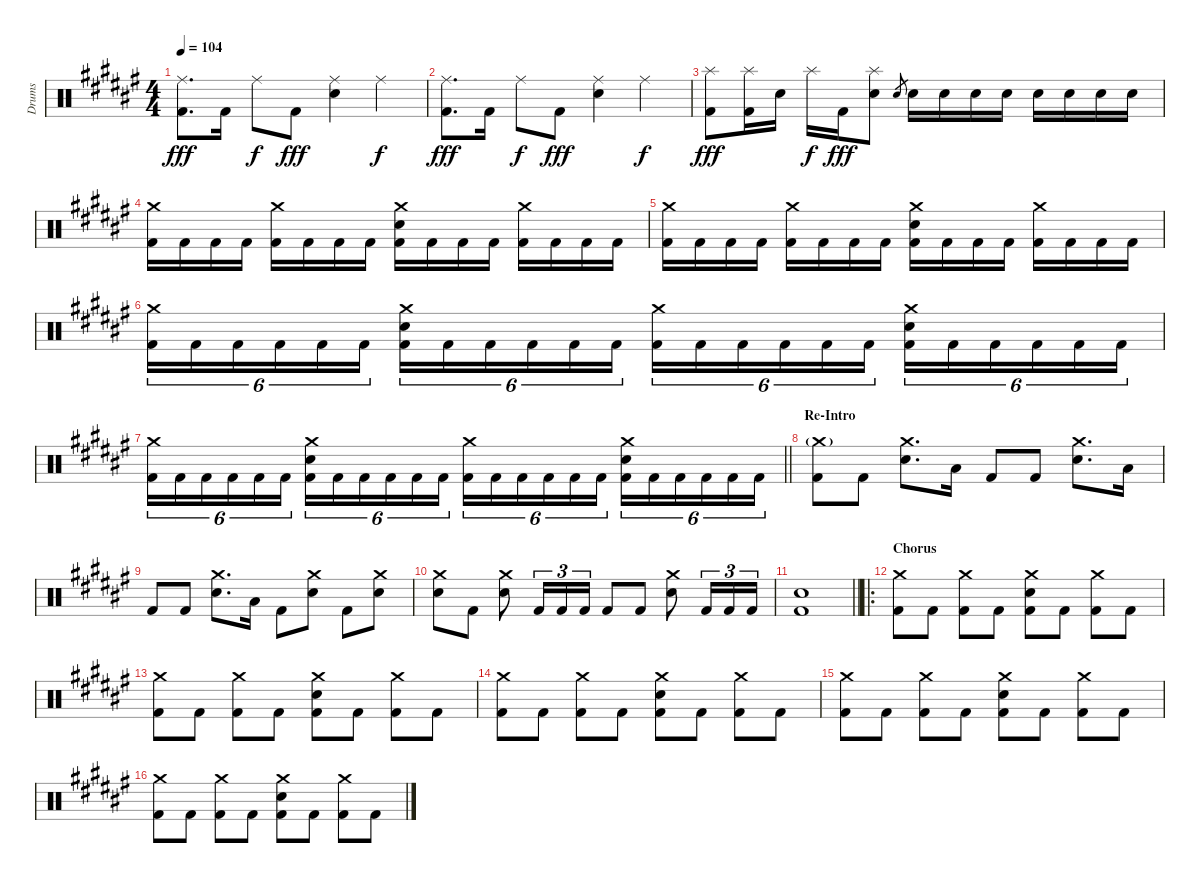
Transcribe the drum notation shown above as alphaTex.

\track ("Drums" "Drums") {instrument percussion}
\staff {score}
\articulation defaults
\ts (4 4)
\tempo 104
\clef neutral
\ks f#
("Ride (middle)" "Kick (hit) 2").8{d dy fff} "Kick (hit) 2".16 "Ride (middle)".8{dy f} "Kick (hit) 2".8{dy fff} ("Ride (middle)" "Snare (hit) 2").4 "Ride (middle)".4{dy f} |
("Ride (middle)" "Kick (hit) 2").8{d dy fff} "Kick (hit) 2".16 "Ride (middle)".8{dy f} "Kick (hit) 2".8{dy fff} ("Ride (middle)" "Snare (hit) 2").4 "Ride (middle)".4{dy f} |
("Splash (hit)" "Kick (hit) 2").8{dy fff} ("Splash (hit)" "Kick (hit) 2").16 "Snare (hit) 2".16 "Splash (hit)".16{dy f} "Kick (hit) 2".16{dy fff} ("Splash (hit)" "Snare (hit) 2").8 "Snare (hit) 2".8{gr} "Snare (hit) 2".16 "Snare (hit) 2".16 "Snare (hit) 2".16 "Snare (hit) 2".16 "Snare (hit) 2".16 "Snare (hit) 2".16 "Snare (hit) 2".16 "Snare (hit) 2".16 |
("Crash medium (hit)" "Kick (hit) 2").16 "Kick (hit) 2".16 "Kick (hit) 2".16 "Kick (hit) 2".16 ("Crash medium (hit)" "Kick (hit) 2").16 "Kick (hit) 2".16 "Kick (hit) 2".16 "Kick (hit) 2".16 ("Crash medium (hit)" "Snare (hit) 2" "Kick (hit) 2").16 "Kick (hit) 2".16 "Kick (hit) 2".16 "Kick (hit) 2".16 ("Crash medium (hit)" "Kick (hit) 2").16 "Kick (hit) 2".16 "Kick (hit) 2".16 "Kick (hit) 2".16 |
("Crash medium (hit)" "Kick (hit) 2").16 "Kick (hit) 2".16 "Kick (hit) 2".16 "Kick (hit) 2".16 ("Crash medium (hit)" "Kick (hit) 2").16 "Kick (hit) 2".16 "Kick (hit) 2".16 "Kick (hit) 2".16 ("Crash medium (hit)" "Snare (hit) 2" "Kick (hit) 2").16 "Kick (hit) 2".16 "Kick (hit) 2".16 "Kick (hit) 2".16 ("Crash medium (hit)" "Kick (hit) 2").16 "Kick (hit) 2".16 "Kick (hit) 2".16 "Kick (hit) 2".16 |
("Crash medium (hit)" "Kick (hit) 2").16{tu (6 4)} "Kick (hit) 2".16{tu (6 4)} "Kick (hit) 2".16{tu (6 4)} "Kick (hit) 2".16{tu (6 4)} "Kick (hit) 2".16{tu (6 4)} "Kick (hit) 2".16{tu (6 4)} ("Crash medium (hit)" "Snare (hit) 2" "Kick (hit) 2").16{tu (6 4)} "Kick (hit) 2".16{tu (6 4)} "Kick (hit) 2".16{tu (6 4)} "Kick (hit) 2".16{tu (6 4)} "Kick (hit) 2".16{tu (6 4)} "Kick (hit) 2".16{tu (6 4)} ("Crash medium (hit)" "Kick (hit) 2").16{tu (6 4)} "Kick (hit) 2".16{tu (6 4)} "Kick (hit) 2".16{tu (6 4)} "Kick (hit) 2".16{tu (6 4)} "Kick (hit) 2".16{tu (6 4)} "Kick (hit) 2".16{tu (6 4)} ("Crash medium (hit)" "Snare (hit) 2" "Kick (hit) 2").16{tu (6 4)} "Kick (hit) 2".16{tu (6 4)} "Kick (hit) 2".16{tu (6 4)} "Kick (hit) 2".16{tu (6 4)} "Kick (hit) 2".16{tu (6 4)} "Kick (hit) 2".16{tu (6 4)} |
\barLineRight lightlight
("Crash medium (hit)" "Kick (hit) 2").16{tu (6 4)} "Kick (hit) 2".16{tu (6 4)} "Kick (hit) 2".16{tu (6 4)} "Kick (hit) 2".16{tu (6 4)} "Kick (hit) 2".16{tu (6 4)} "Kick (hit) 2".16{tu (6 4)} ("Crash medium (hit)" "Snare (hit) 2" "Kick (hit) 2").16{tu (6 4)} "Kick (hit) 2".16{tu (6 4)} "Kick (hit) 2".16{tu (6 4)} "Kick (hit) 2".16{tu (6 4)} "Kick (hit) 2".16{tu (6 4)} "Kick (hit) 2".16{tu (6 4)} ("Crash medium (hit)" "Kick (hit) 2").16{tu (6 4)} "Kick (hit) 2".16{tu (6 4)} "Kick (hit) 2".16{tu (6 4)} "Kick (hit) 2".16{tu (6 4)} "Kick (hit) 2".16{tu (6 4)} "Kick (hit) 2".16{tu (6 4)} ("Crash medium (hit)" "Snare (hit) 2" "Kick (hit) 2").16{tu (6 4)} "Kick (hit) 2".16{tu (6 4)} "Kick (hit) 2".16{tu (6 4)} "Kick (hit) 2".16{tu (6 4)} "Kick (hit) 2".16{tu (6 4)} "Kick (hit) 2".16{tu (6 4)} |
\section ("" "Re-Intro")
("Crash medium (hit)"{g} "Kick (hit) 2").8 "Kick (hit) 2".8 ("Crash medium (hit)" "Snare (hit) 2").8{d} "Low Floor Tom (hit)".16 "Kick (hit) 2".8 "Kick (hit) 2".8 ("Crash medium (hit)" "Snare (hit) 2").8{d} "Low Floor Tom (hit)".16 |
"Kick (hit) 2".8 "Kick (hit) 2".8 ("Crash medium (hit)" "Snare (hit) 2").8{d} "Low Floor Tom (hit)".16 "Kick (hit) 2".8 ("Crash medium (hit)" "Snare (hit) 2").8 "Kick (hit) 2".8 ("Crash medium (hit)" "Snare (hit) 2").8 |
("Crash medium (hit)" "Snare (hit) 2").8 "Kick (hit) 2".8 ("Crash medium (hit)" "Snare (hit) 2").8 "Kick (hit) 2".16{tu (3 2)} "Kick (hit) 2".16{tu (3 2)} "Kick (hit) 2".16{tu (3 2)} "Kick (hit) 2".8 "Kick (hit) 2".8 ("Crash medium (hit)" "Snare (hit) 2").8 "Kick (hit) 2".16{tu (3 2)} "Kick (hit) 2".16{tu (3 2)} "Kick (hit) 2".16{tu (3 2)} |
\barLineRight lightlight
("Snare (hit) 2" "Kick (hit) 2").1 |
\ro
\section ("" "Chorus")
("Crash medium (hit)" "Kick (hit) 2").8 "Kick (hit) 2".8 ("Crash medium (hit)" "Kick (hit) 2").8 "Kick (hit) 2".8 ("Crash medium (hit)" "Snare (hit) 2" "Kick (hit) 2").8 "Kick (hit) 2".8 ("Crash medium (hit)" "Kick (hit) 2").8 "Kick (hit) 2".8 |
("Crash medium (hit)" "Kick (hit) 2").8 "Kick (hit) 2".8 ("Crash medium (hit)" "Kick (hit) 2").8 "Kick (hit) 2".8 ("Crash medium (hit)" "Snare (hit) 2" "Kick (hit) 2").8 "Kick (hit) 2".8 ("Crash medium (hit)" "Kick (hit) 2").8 "Kick (hit) 2".8 |
("Crash medium (hit)" "Kick (hit) 2").8 "Kick (hit) 2".8 ("Crash medium (hit)" "Kick (hit) 2").8 "Kick (hit) 2".8 ("Crash medium (hit)" "Snare (hit) 2" "Kick (hit) 2").8 "Kick (hit) 2".8 ("Crash medium (hit)" "Kick (hit) 2").8 "Kick (hit) 2".8 |
("Crash medium (hit)" "Kick (hit) 2").8 "Kick (hit) 2".8 ("Crash medium (hit)" "Kick (hit) 2").8 "Kick (hit) 2".8 ("Crash medium (hit)" "Snare (hit) 2" "Kick (hit) 2").8 "Kick (hit) 2".8 ("Crash medium (hit)" "Kick (hit) 2").8 "Kick (hit) 2".8 |
("Crash medium (hit)" "Kick (hit) 2").8 "Kick (hit) 2".8 ("Crash medium (hit)" "Kick (hit) 2").8 "Kick (hit) 2".8 ("Crash medium (hit)" "Snare (hit) 2" "Kick (hit) 2").8 "Kick (hit) 2".8 ("Crash medium (hit)" "Kick (hit) 2").8 "Kick (hit) 2".8
